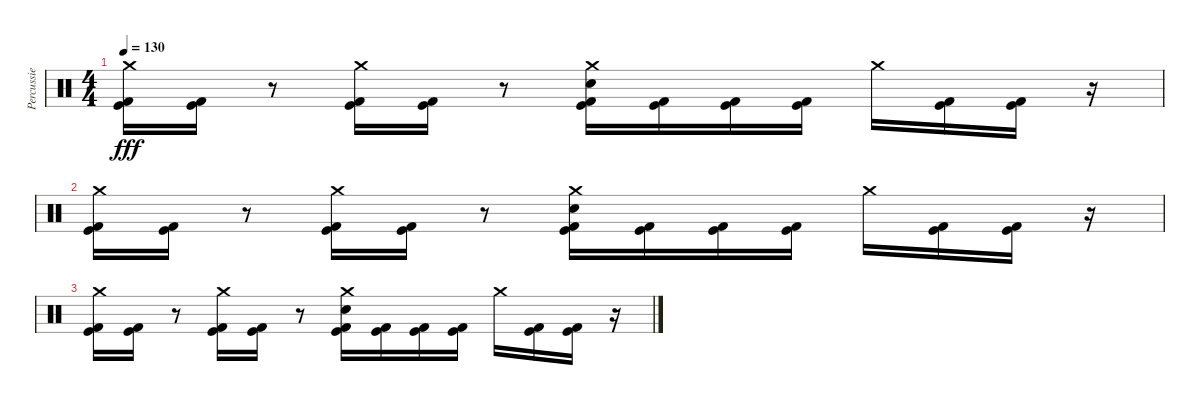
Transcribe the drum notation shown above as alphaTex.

\track ("Percussie" "Percussie") {instrument percussion}
\staff {score}
\articulation defaults
\ts (4 4)
\tempo 130
\clef neutral
\ks c
("Crash medium (hit)" "Kick (hit)" "Kick (hit) 2").16{dy fff} ("Kick (hit)" "Kick (hit) 2").16 r.8 ("Crash medium (hit)" "Kick (hit)" "Kick (hit) 2").16 ("Kick (hit)" "Kick (hit) 2").16 r.8 ("Crash medium (hit)" "Electric Snare (hit)" "Kick (hit)" "Kick (hit) 2").16 ("Kick (hit)" "Kick (hit) 2").16 ("Kick (hit)" "Kick (hit) 2").16 ("Kick (hit)" "Kick (hit) 2").16 "Crash medium (hit)".16 ("Kick (hit)" "Kick (hit) 2").16 ("Kick (hit)" "Kick (hit) 2").16 r.16 |
("Crash medium (hit)" "Kick (hit)" "Kick (hit) 2").16 ("Kick (hit)" "Kick (hit) 2").16 r.8 ("Crash medium (hit)" "Kick (hit)" "Kick (hit) 2").16 ("Kick (hit)" "Kick (hit) 2").16 r.8 ("Crash medium (hit)" "Electric Snare (hit)" "Kick (hit)" "Kick (hit) 2").16 ("Kick (hit)" "Kick (hit) 2").16 ("Kick (hit)" "Kick (hit) 2").16 ("Kick (hit)" "Kick (hit) 2").16 "Crash medium (hit)".16 ("Kick (hit)" "Kick (hit) 2").16 ("Kick (hit)" "Kick (hit) 2").16 r.16 |
("Crash medium (hit)" "Kick (hit)" "Kick (hit) 2").16 ("Kick (hit)" "Kick (hit) 2").16 r.8 ("Crash medium (hit)" "Kick (hit)" "Kick (hit) 2").16 ("Kick (hit)" "Kick (hit) 2").16 r.8 ("Crash medium (hit)" "Electric Snare (hit)" "Kick (hit)" "Kick (hit) 2").16 ("Kick (hit)" "Kick (hit) 2").16 ("Kick (hit)" "Kick (hit) 2").16 ("Kick (hit)" "Kick (hit) 2").16 "Crash medium (hit)".16 ("Kick (hit)" "Kick (hit) 2").16 ("Kick (hit)" "Kick (hit) 2").16 r.16
